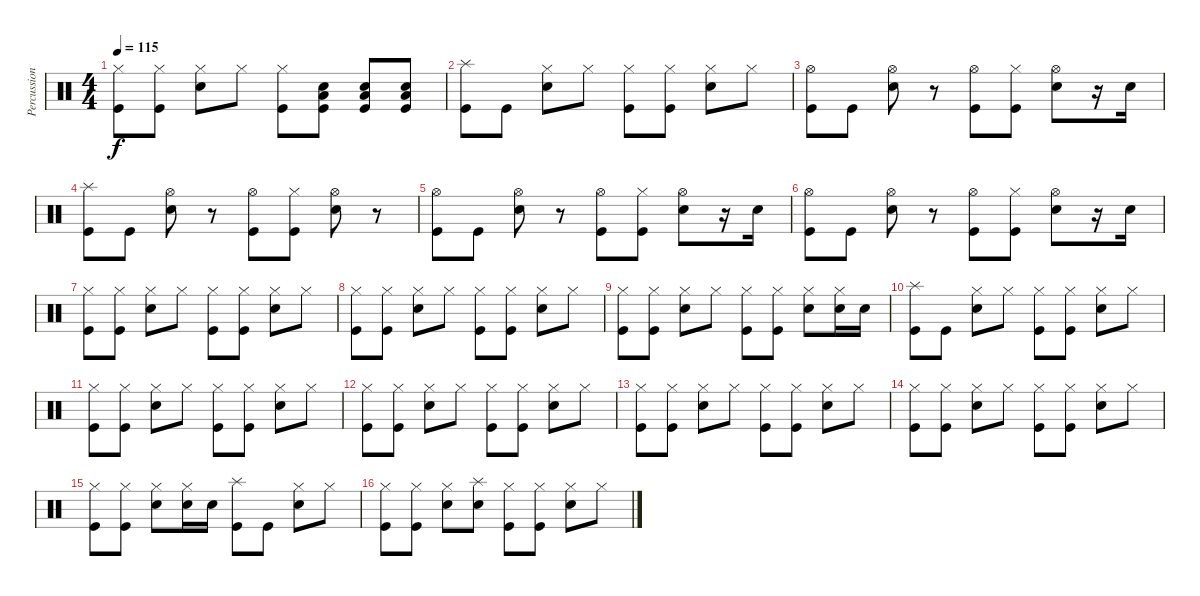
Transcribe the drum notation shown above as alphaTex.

\track ("Percussion" "Percussion") {instrument percussion}
\staff {score}
\articulation defaults
\ts (4 4)
\tempo 115
\clef neutral
\ks c
("Hi-Hat (closed)" "Kick (hit)").8{dy f} ("Hi-Hat (closed)" "Kick (hit)").8 ("Hi-Hat (closed)" "Snare (hit) 2").8 "Hi-Hat (closed)".8 ("Hi-Hat (closed)" "Kick (hit)").8 ("Snare (hit) 2" "Low Tom (hit)" "Kick (hit)").8 ("Snare (hit) 2" "Low Tom (hit)" "Kick (hit)").8 ("Snare (hit) 2" "Low Tom (hit)" "Kick (hit)").8 |
("Splash (hit)" "Kick (hit)").8 "Kick (hit)".8 ("Hi-Hat (closed)" "Snare (hit) 2").8 "Hi-Hat (closed)".8 ("Hi-Hat (closed)" "Kick (hit)").8 ("Hi-Hat (closed)" "Kick (hit)").8 ("Hi-Hat (closed)" "Snare (hit) 2").8 "Hi-Hat (closed)".8 |
("Hi-Hat (open)" "Kick (hit)").8 "Kick (hit)".8 ("Hi-Hat (open)" "Snare (hit) 2").8 r.8 ("Hi-Hat (open)" "Kick (hit)").8 ("Hi-Hat (closed)" "Kick (hit)").8 ("Hi-Hat (open)" "Snare (hit) 2").8 r.16 "Snare (hit) 2".16 |
("Splash (hit)" "Kick (hit)").8 "Kick (hit)".8 ("Hi-Hat (open)" "Snare (hit) 2").8 r.8 ("Hi-Hat (open)" "Kick (hit)").8 ("Hi-Hat (closed)" "Kick (hit)").8 ("Hi-Hat (open)" "Snare (hit) 2").8 r.8 |
("Hi-Hat (open)" "Kick (hit)").8 "Kick (hit)".8 ("Hi-Hat (open)" "Snare (hit) 2").8 r.8 ("Hi-Hat (open)" "Kick (hit)").8 ("Hi-Hat (closed)" "Kick (hit)").8 ("Hi-Hat (open)" "Snare (hit) 2").8 r.16 "Snare (hit) 2".16 |
("Hi-Hat (open)" "Kick (hit)").8 "Kick (hit)".8 ("Hi-Hat (open)" "Snare (hit) 2").8 r.8 ("Hi-Hat (open)" "Kick (hit)").8 ("Hi-Hat (closed)" "Kick (hit)").8 ("Hi-Hat (open)" "Snare (hit) 2").8 r.16 "Snare (hit) 2".16 |
("Hi-Hat (closed)" "Kick (hit)").8 ("Hi-Hat (closed)" "Kick (hit)").8 ("Hi-Hat (closed)" "Snare (hit) 2").8 "Hi-Hat (closed)".8 ("Hi-Hat (closed)" "Kick (hit)").8 ("Hi-Hat (closed)" "Kick (hit)").8 ("Hi-Hat (closed)" "Snare (hit) 2").8 "Hi-Hat (closed)".8 |
("Hi-Hat (closed)" "Kick (hit)").8 ("Hi-Hat (closed)" "Kick (hit)").8 ("Hi-Hat (closed)" "Snare (hit) 2").8 "Hi-Hat (closed)".8 ("Hi-Hat (closed)" "Kick (hit)").8 ("Hi-Hat (closed)" "Kick (hit)").8 ("Hi-Hat (closed)" "Snare (hit) 2").8 "Hi-Hat (closed)".8 |
("Hi-Hat (closed)" "Kick (hit)").8 ("Hi-Hat (closed)" "Kick (hit)").8 ("Hi-Hat (closed)" "Snare (hit) 2").8 "Hi-Hat (closed)".8 ("Hi-Hat (closed)" "Kick (hit)").8 ("Hi-Hat (closed)" "Kick (hit)").8 ("Hi-Hat (closed)" "Snare (hit) 2").8 ("Hi-Hat (closed)" "Snare (hit) 2").16 "Snare (hit) 2".16 |
("Splash (hit)" "Kick (hit)").8 "Kick (hit)".8 ("Hi-Hat (closed)" "Snare (hit) 2").8 "Hi-Hat (closed)".8 ("Hi-Hat (closed)" "Kick (hit)").8 ("Hi-Hat (closed)" "Kick (hit)").8 ("Hi-Hat (closed)" "Snare (hit) 2").8 "Hi-Hat (closed)".8 |
("Hi-Hat (closed)" "Kick (hit)").8 ("Hi-Hat (closed)" "Kick (hit)").8 ("Hi-Hat (closed)" "Snare (hit) 2").8 "Hi-Hat (closed)".8 ("Hi-Hat (closed)" "Kick (hit)").8 ("Hi-Hat (closed)" "Kick (hit)").8 ("Hi-Hat (closed)" "Snare (hit) 2").8 "Hi-Hat (closed)".8 |
("Hi-Hat (closed)" "Kick (hit)").8 ("Hi-Hat (closed)" "Kick (hit)").8 ("Hi-Hat (closed)" "Snare (hit) 2").8 "Hi-Hat (closed)".8 ("Hi-Hat (closed)" "Kick (hit)").8 ("Hi-Hat (closed)" "Kick (hit)").8 ("Hi-Hat (closed)" "Snare (hit) 2").8 "Hi-Hat (closed)".8 |
("Hi-Hat (closed)" "Kick (hit)").8 ("Hi-Hat (closed)" "Kick (hit)").8 ("Hi-Hat (closed)" "Snare (hit) 2").8 "Hi-Hat (closed)".8 ("Hi-Hat (closed)" "Kick (hit)").8 ("Hi-Hat (closed)" "Kick (hit)").8 ("Hi-Hat (closed)" "Snare (hit) 2").8 "Hi-Hat (closed)".8 |
("Hi-Hat (closed)" "Kick (hit)").8 ("Hi-Hat (closed)" "Kick (hit)").8 ("Hi-Hat (closed)" "Snare (hit) 2").8 "Hi-Hat (closed)".8 ("Hi-Hat (closed)" "Kick (hit)").8 ("Hi-Hat (closed)" "Kick (hit)").8 ("Hi-Hat (closed)" "Snare (hit) 2").8 "Hi-Hat (closed)".8 |
("Hi-Hat (closed)" "Kick (hit)").8 ("Hi-Hat (closed)" "Kick (hit)").8 ("Hi-Hat (closed)" "Snare (hit) 2").8 ("Hi-Hat (closed)" "Snare (hit) 2").16 "Snare (hit) 2".16 ("Splash (hit)" "Kick (hit)").8 "Kick (hit)".8 ("Hi-Hat (closed)" "Snare (hit) 2").8 "Hi-Hat (closed)".8 |
("Hi-Hat (closed)" "Kick (hit)").8 ("Hi-Hat (closed)" "Kick (hit)").8 ("Hi-Hat (closed)" "Snare (hit) 2").8 ("Splash (hit)" "Snare (hit) 2").8 ("Hi-Hat (closed)" "Kick (hit)").8 ("Hi-Hat (closed)" "Kick (hit)").8 ("Hi-Hat (closed)" "Snare (hit) 2").8 "Hi-Hat (closed)".8
